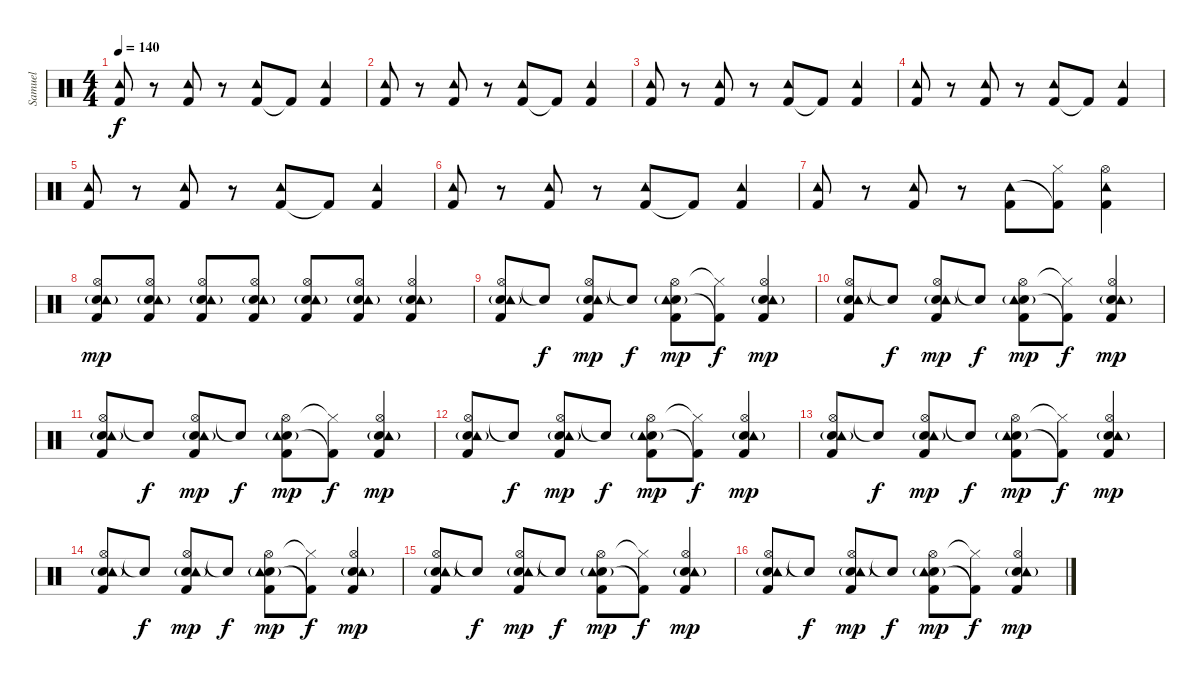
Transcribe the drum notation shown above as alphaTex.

\track ("Samuel" "Samuel") {instrument percussion}
\staff {score}
\articulation defaults
\ts (4 4)
\tempo 140
\clef neutral
\ks c
("Kick (hit) 2" "Tambourine (hit)").8{dy f} r.8 ("Kick (hit) 2" "Tambourine (hit)").8 r.8 ("Kick (hit) 2" "Tambourine (hit)").8 "Kick (hit) 2"{t}.8 ("Kick (hit) 2" "Tambourine (hit)").4 |
("Kick (hit) 2" "Tambourine (hit)").8 r.8 ("Kick (hit) 2" "Tambourine (hit)").8 r.8 ("Kick (hit) 2" "Tambourine (hit)").8 "Kick (hit) 2"{t}.8 ("Kick (hit) 2" "Tambourine (hit)").4 |
("Kick (hit) 2" "Tambourine (hit)").8 r.8 ("Kick (hit) 2" "Tambourine (hit)").8 r.8 ("Kick (hit) 2" "Tambourine (hit)").8 "Kick (hit) 2"{t}.8 ("Kick (hit) 2" "Tambourine (hit)").4 |
("Kick (hit) 2" "Tambourine (hit)").8 r.8 ("Kick (hit) 2" "Tambourine (hit)").8 r.8 ("Kick (hit) 2" "Tambourine (hit)").8 "Kick (hit) 2"{t}.8 ("Kick (hit) 2" "Tambourine (hit)").4 |
("Kick (hit) 2" "Tambourine (hit)").8 r.8 ("Kick (hit) 2" "Tambourine (hit)").8 r.8 ("Kick (hit) 2" "Tambourine (hit)").8 "Kick (hit) 2"{t}.8 ("Kick (hit) 2" "Tambourine (hit)").4 |
("Kick (hit) 2" "Tambourine (hit)").8 r.8 ("Kick (hit) 2" "Tambourine (hit)").8 r.8 ("Kick (hit) 2" "Tambourine (hit)").8 "Kick (hit) 2"{t}.8 ("Kick (hit) 2" "Tambourine (hit)").4 |
("Kick (hit) 2" "Tambourine (hit)").8 r.8 ("Kick (hit) 2" "Tambourine (hit)").8 r.8 ("Kick (hit) 2" "Tambourine (hit)").8 ("Hi-Hat (closed)" "Kick (hit) 2"{t}).8 ("Hi-Hat (open)" "Kick (hit) 2" "Tambourine (hit)").4 |
("Hi-Hat (open)" "Snare (hit) 2"{g} "Kick (hit) 2" "Tambourine (hit)").8{dy mp} ("Hi-Hat (open)" "Snare (hit) 2"{g} "Kick (hit) 2" "Tambourine (hit)").8 ("Hi-Hat (open)" "Snare (hit) 2"{g} "Kick (hit) 2" "Tambourine (hit)").8 ("Hi-Hat (open)" "Snare (hit) 2"{g} "Kick (hit) 2" "Tambourine (hit)").8 ("Hi-Hat (open)" "Snare (hit) 2"{g} "Kick (hit) 2" "Tambourine (hit)").8 ("Hi-Hat (open)" "Snare (hit) 2"{g} "Kick (hit) 2" "Tambourine (hit)").8 ("Hi-Hat (open)" "Snare (hit) 2"{g} "Kick (hit) 2" "Tambourine (hit)").4 |
("Hi-Hat (open)" "Snare (hit) 2"{g} "Kick (hit) 2" "Tambourine (hit)").8 "Snare (hit)"{t}.8{dy f} ("Hi-Hat (open)" "Snare (hit) 2"{g} "Kick (hit) 2" "Tambourine (hit)").8{dy mp} "Snare (hit)"{t}.8{dy f} ("Hi-Hat (open)" "Snare (hit) 2"{g} "Kick (hit) 2" "Tambourine (hit)").8{dy mp} ("Hi-Hat (closed)"{t} "Kick (hit) 2"{t}).8{dy f} ("Hi-Hat (open)" "Snare (hit) 2"{g} "Kick (hit) 2" "Tambourine (hit)").4{dy mp} |
("Hi-Hat (open)" "Snare (hit) 2"{g} "Kick (hit) 2" "Tambourine (hit)").8 "Snare (hit)"{t}.8{dy f} ("Hi-Hat (open)" "Snare (hit) 2"{g} "Kick (hit) 2" "Tambourine (hit)").8{dy mp} "Snare (hit)"{t}.8{dy f} ("Hi-Hat (open)" "Snare (hit) 2"{g} "Kick (hit) 2" "Tambourine (hit)").8{dy mp} ("Hi-Hat (closed)"{t} "Kick (hit) 2"{t}).8{dy f} ("Hi-Hat (open)" "Snare (hit) 2"{g} "Kick (hit) 2" "Tambourine (hit)").4{dy mp} |
("Hi-Hat (open)" "Snare (hit) 2"{g} "Kick (hit) 2" "Tambourine (hit)").8 "Snare (hit)"{t}.8{dy f} ("Hi-Hat (open)" "Snare (hit) 2"{g} "Kick (hit) 2" "Tambourine (hit)").8{dy mp} "Snare (hit)"{t}.8{dy f} ("Hi-Hat (open)" "Snare (hit) 2"{g} "Kick (hit) 2" "Tambourine (hit)").8{dy mp} ("Hi-Hat (closed)"{t} "Kick (hit) 2"{t}).8{dy f} ("Hi-Hat (open)" "Snare (hit) 2"{g} "Kick (hit) 2" "Tambourine (hit)").4{dy mp} |
("Hi-Hat (open)" "Snare (hit) 2"{g} "Kick (hit) 2" "Tambourine (hit)").8 "Snare (hit)"{t}.8{dy f} ("Hi-Hat (open)" "Snare (hit) 2"{g} "Kick (hit) 2" "Tambourine (hit)").8{dy mp} "Snare (hit)"{t}.8{dy f} ("Hi-Hat (open)" "Snare (hit) 2"{g} "Kick (hit) 2" "Tambourine (hit)").8{dy mp} ("Hi-Hat (closed)"{t} "Kick (hit) 2"{t}).8{dy f} ("Hi-Hat (open)" "Snare (hit) 2"{g} "Kick (hit) 2" "Tambourine (hit)").4{dy mp} |
("Hi-Hat (open)" "Snare (hit) 2"{g} "Kick (hit) 2" "Tambourine (hit)").8 "Snare (hit)"{t}.8{dy f} ("Hi-Hat (open)" "Snare (hit) 2"{g} "Kick (hit) 2" "Tambourine (hit)").8{dy mp} "Snare (hit)"{t}.8{dy f} ("Hi-Hat (open)" "Snare (hit) 2"{g} "Kick (hit) 2" "Tambourine (hit)").8{dy mp} ("Hi-Hat (closed)"{t} "Kick (hit) 2"{t}).8{dy f} ("Hi-Hat (open)" "Snare (hit) 2"{g} "Kick (hit) 2" "Tambourine (hit)").4{dy mp} |
("Hi-Hat (open)" "Snare (hit) 2"{g} "Kick (hit) 2" "Tambourine (hit)").8 "Snare (hit)"{t}.8{dy f} ("Hi-Hat (open)" "Snare (hit) 2"{g} "Kick (hit) 2" "Tambourine (hit)").8{dy mp} "Snare (hit)"{t}.8{dy f} ("Hi-Hat (open)" "Snare (hit) 2"{g} "Kick (hit) 2" "Tambourine (hit)").8{dy mp} ("Hi-Hat (closed)"{t} "Kick (hit) 2"{t}).8{dy f} ("Hi-Hat (open)" "Snare (hit) 2"{g} "Kick (hit) 2" "Tambourine (hit)").4{dy mp} |
("Hi-Hat (open)" "Snare (hit) 2"{g} "Kick (hit) 2" "Tambourine (hit)").8 "Snare (hit)"{t}.8{dy f} ("Hi-Hat (open)" "Snare (hit) 2"{g} "Kick (hit) 2" "Tambourine (hit)").8{dy mp} "Snare (hit)"{t}.8{dy f} ("Hi-Hat (open)" "Snare (hit) 2"{g} "Kick (hit) 2" "Tambourine (hit)").8{dy mp} ("Hi-Hat (closed)"{t} "Kick (hit) 2"{t}).8{dy f} ("Hi-Hat (open)" "Snare (hit) 2"{g} "Kick (hit) 2" "Tambourine (hit)").4{dy mp} |
("Hi-Hat (open)" "Snare (hit) 2"{g} "Kick (hit) 2" "Tambourine (hit)").8 "Snare (hit)"{t}.8{dy f} ("Hi-Hat (open)" "Snare (hit) 2"{g} "Kick (hit) 2" "Tambourine (hit)").8{dy mp} "Snare (hit)"{t}.8{dy f} ("Hi-Hat (open)" "Snare (hit) 2"{g} "Kick (hit) 2" "Tambourine (hit)").8{dy mp} ("Hi-Hat (closed)"{t} "Kick (hit) 2"{t}).8{dy f} ("Hi-Hat (open)" "Snare (hit) 2"{g} "Kick (hit) 2" "Tambourine (hit)").4{dy mp}
